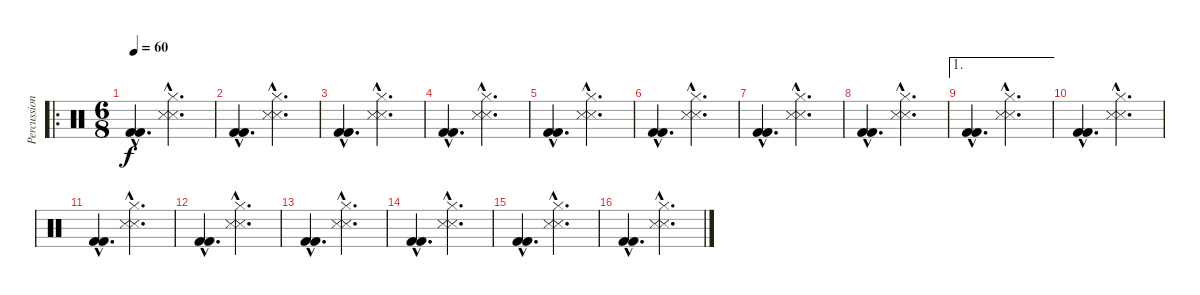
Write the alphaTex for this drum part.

\track ("Percussion" "Percussion") {instrument percussion}
\staff {score}
\articulation defaults
\ro
\ts (6 8)
\tempo 60
\clef neutral
\ks c
("Kick (hit) 2"{hac} "Kick (hit) 2"{hac}).4{d dy f} ("Hi-Hat (closed)"{hac} "Snare (side stick) 3"{hac} "Snare (side stick) 3"{hac}).4{d} |
("Kick (hit) 2"{hac} "Kick (hit) 2"{hac}).4{d} ("Hi-Hat (closed)"{hac} "Snare (side stick) 3"{hac} "Snare (side stick) 3"{hac}).4{d} |
("Kick (hit) 2"{hac} "Kick (hit) 2"{hac}).4{d} ("Hi-Hat (closed)"{hac} "Snare (side stick) 3"{hac} "Snare (side stick) 3"{hac}).4{d} |
("Kick (hit) 2"{hac} "Kick (hit) 2"{hac}).4{d} ("Hi-Hat (closed)"{hac} "Snare (side stick) 3"{hac} "Snare (side stick) 3"{hac}).4{d} |
("Kick (hit) 2"{hac} "Kick (hit) 2"{hac}).4{d} ("Hi-Hat (closed)"{hac} "Snare (side stick) 3"{hac} "Snare (side stick) 3"{hac}).4{d} |
("Kick (hit) 2"{hac} "Kick (hit) 2"{hac}).4{d} ("Hi-Hat (closed)"{hac} "Snare (side stick) 3"{hac} "Snare (side stick) 3"{hac}).4{d} |
("Kick (hit) 2"{hac} "Kick (hit) 2"{hac}).4{d} ("Hi-Hat (closed)"{hac} "Snare (side stick) 3"{hac} "Snare (side stick) 3"{hac}).4{d} |
("Kick (hit) 2"{hac} "Kick (hit) 2"{hac}).4{d} ("Hi-Hat (closed)"{hac} "Snare (side stick) 3"{hac} "Snare (side stick) 3"{hac}).4{d} |
\ae 1
("Kick (hit) 2"{hac} "Kick (hit) 2"{hac}).4{d} ("Hi-Hat (closed)"{hac} "Snare (side stick) 3"{hac} "Snare (side stick) 3"{hac}).4{d} |
("Kick (hit) 2"{hac} "Kick (hit) 2"{hac}).4{d} ("Hi-Hat (closed)"{hac} "Snare (side stick) 3"{hac} "Snare (side stick) 3"{hac}).4{d} |
("Kick (hit) 2"{hac} "Kick (hit) 2"{hac}).4{d} ("Hi-Hat (closed)"{hac} "Snare (side stick) 3"{hac} "Snare (side stick) 3"{hac}).4{d} |
("Kick (hit) 2"{hac} "Kick (hit) 2"{hac}).4{d} ("Hi-Hat (closed)"{hac} "Snare (side stick) 3"{hac} "Snare (side stick) 3"{hac}).4{d} |
("Kick (hit) 2"{hac} "Kick (hit) 2"{hac}).4{d} ("Hi-Hat (closed)"{hac} "Snare (side stick) 3"{hac} "Snare (side stick) 3"{hac}).4{d} |
("Kick (hit) 2"{hac} "Kick (hit) 2"{hac}).4{d} ("Hi-Hat (closed)"{hac} "Snare (side stick) 3"{hac} "Snare (side stick) 3"{hac}).4{d} |
("Kick (hit) 2"{hac} "Kick (hit) 2"{hac}).4{d} ("Hi-Hat (closed)"{hac} "Snare (side stick) 3"{hac} "Snare (side stick) 3"{hac}).4{d} |
("Kick (hit) 2"{hac} "Kick (hit) 2"{hac}).4{d} ("Hi-Hat (closed)"{hac} "Snare (side stick) 3"{hac} "Snare (side stick) 3"{hac}).4{d}
